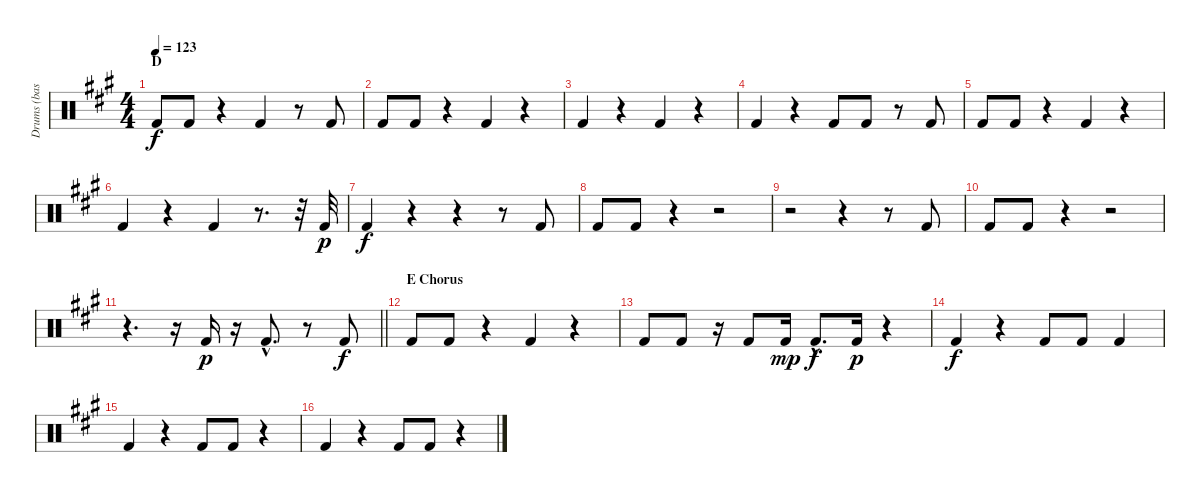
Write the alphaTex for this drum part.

\track ("Drums (bass Drums)" "Drums (bas") {instrument percussion}
\staff {score}
\articulation defaults
\ts (4 4)
\section ("" "D")
\tempo 123
\clef neutral
\ks a "Kick (hit) 2".8{dy f} "Kick (hit) 2".8
r.4 "Kick (hit) 2".4 r.8 "Kick (hit) 2".8 |
"Kick (hit) 2".8 "Kick (hit) 2".8 r.4 "Kick (hit) 2".4 r.4 |
"Kick (hit) 2".4 r.4 "Kick (hit) 2".4 r.4 |
"Kick (hit) 2".4 r.4 "Kick (hit) 2".8 "Kick (hit) 2".8 r.8 "Kick (hit) 2".8 |
"Kick (hit) 2".8 "Kick (hit) 2".8 r.4 "Kick (hit) 2".4 r.4 |
"Kick (hit) 2".4 r.4 "Kick (hit) 2".4 r.8{d} r.32 "Kick (hit) 2".32{dy p} |
"Kick (hit) 2".4{dy f} r.4 r.4 r.8 "Kick (hit) 2".8 |
"Kick (hit) 2".8 "Kick (hit) 2".8 r.4 r.2 |
r.2 r.4 r.8 "Kick (hit) 2".8 |
"Kick (hit) 2".8 "Kick (hit) 2".8 r.4 r.2 |
\barLineRight lightlight
r.4{d} r.16 "Kick (hit) 2".16{dy p} r.16 "Kick (hit) 2"{hac}.8{d} r.8 "Kick (hit) 2".8{dy f} |
\section ("" "E Chorus")
"Kick (hit) 2".8 "Kick (hit) 2".8 r.4 "Kick (hit) 2".4 r.4 |
"Kick (hit) 2".8 "Kick (hit) 2".8 r.16 "Kick (hit) 2".8 "Kick (hit) 2".16{dy mp} "Kick (hit) 2"{hac}.8{d dy f} "Kick (hit) 2".16{dy p} r.4 |
"Kick (hit) 2".4{dy f} r.4 "Kick (hit) 2".8 "Kick (hit) 2".8 "Kick (hit) 2".4 |
"Kick (hit) 2".4 r.4 "Kick (hit) 2".8 "Kick (hit) 2".8 r.4 |
"Kick (hit) 2".4 r.4 "Kick (hit) 2".8 "Kick (hit) 2".8 r.4
